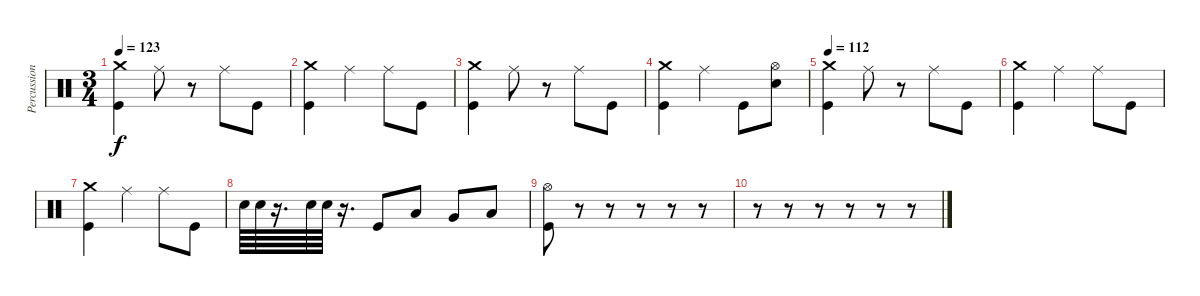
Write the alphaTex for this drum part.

\track ("Percussion" "Percussion") {instrument percussion}
\staff {score}
\articulation defaults
\ts (3 4)
\tempo 123
\clef neutral
\ks c
("Crash medium (hit)" "Kick (hit)").4{dy f} "Ride (middle)".8 r.8 "Ride (middle)".8 "Kick (hit)".8 |
("Crash medium (hit)" "Kick (hit)").4 "Ride (middle)".4 "Ride (middle)".8 "Kick (hit)".8 |
("Crash medium (hit)" "Kick (hit)").4 "Ride (middle)".8 r.8 "Ride (middle)".8 "Kick (hit)".8 |
("Crash medium (hit)" "Kick (hit)").4 "Ride (middle)".4 "Kick (hit)".8 ("Hi-Hat (open)" "Electric Snare (hit)").8 |
\tempo 112
("Crash medium (hit)" "Kick (hit)").4 "Ride (middle)".8 r.8 "Ride (middle)".8 "Kick (hit)".8 |
("Crash medium (hit)" "Kick (hit)").4 "Ride (middle)".4 "Ride (middle)".8 "Kick (hit)".8 |
("Crash medium (hit)" "Kick (hit)").4 "Ride (middle)".4 "Ride (middle)".8 "Kick (hit)".8 |
"Electric Snare (hit)".64 "Electric Snare (hit)".64 r.16{d} "Electric Snare (hit)".64 "Electric Snare (hit)".64 r.16{d} "Kick (hit)".8 "Low Tom (hit)".8 "Very Low Tom (hit)".8 "Low Floor Tom (hit)".8 |
("Hi-Hat (open)" "Kick (hit)").8 r.8 r.8 r.8 r.8 r.8 |
r.8 r.8 r.8 r.8 r.8 r.8
